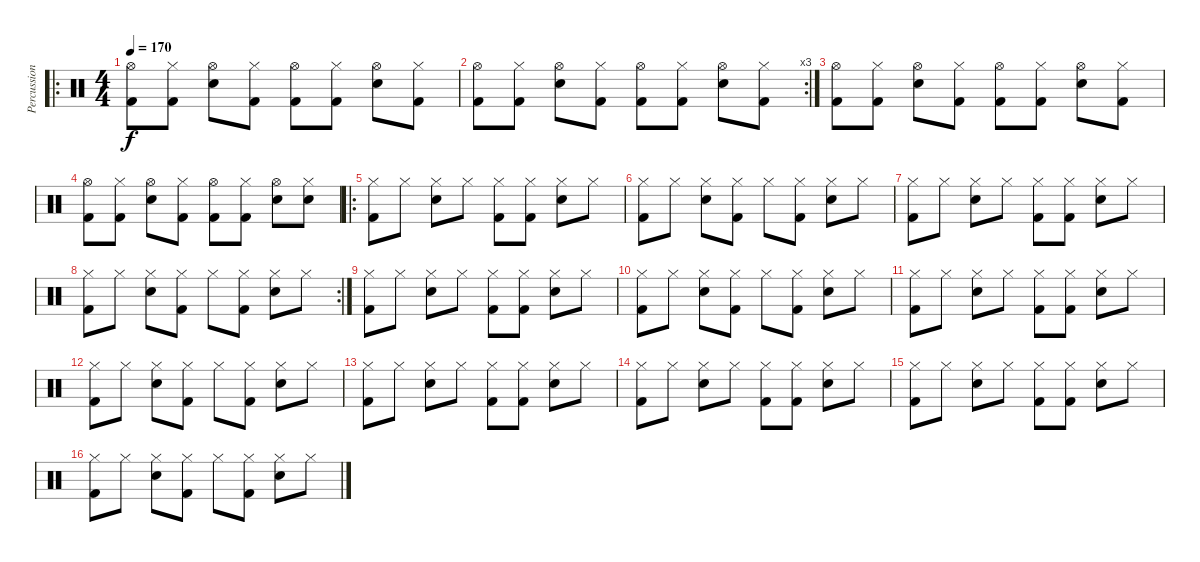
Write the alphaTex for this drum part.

\track ("Percussion" "Percussion") {instrument percussion}
\staff {score}
\articulation defaults
\ro
\ts (4 4)
\tempo 170
\clef neutral
\ks c
("Hi-Hat (open)" "Kick (hit) 2").8{dy f} ("Hi-Hat (closed)" "Kick (hit) 2").8 ("Hi-Hat (open)" "Electric Snare (hit)").8 ("Hi-Hat (closed)" "Kick (hit) 2").8 ("Hi-Hat (open)" "Kick (hit) 2").8 ("Hi-Hat (closed)" "Kick (hit) 2").8 ("Hi-Hat (open)" "Electric Snare (hit)").8 ("Hi-Hat (closed)" "Kick (hit) 2").8 |
\rc 3
("Hi-Hat (open)" "Kick (hit) 2").8 ("Hi-Hat (closed)" "Kick (hit) 2").8 ("Hi-Hat (open)" "Electric Snare (hit)").8 ("Hi-Hat (closed)" "Kick (hit) 2").8 ("Hi-Hat (open)" "Kick (hit) 2").8 ("Hi-Hat (closed)" "Kick (hit) 2").8 ("Hi-Hat (open)" "Electric Snare (hit)").8 ("Hi-Hat (closed)" "Kick (hit) 2").8 |
("Hi-Hat (open)" "Kick (hit) 2").8 ("Hi-Hat (closed)" "Kick (hit) 2").8 ("Hi-Hat (open)" "Electric Snare (hit)").8 ("Hi-Hat (closed)" "Kick (hit) 2").8 ("Hi-Hat (open)" "Kick (hit) 2").8 ("Hi-Hat (closed)" "Kick (hit) 2").8 ("Hi-Hat (open)" "Electric Snare (hit)").8 ("Hi-Hat (closed)" "Kick (hit) 2").8 |
("Hi-Hat (open)" "Kick (hit) 2").8 ("Hi-Hat (closed)" "Kick (hit) 2").8 ("Hi-Hat (open)" "Electric Snare (hit)").8 ("Hi-Hat (closed)" "Kick (hit) 2").8 ("Hi-Hat (open)" "Kick (hit) 2").8 ("Hi-Hat (closed)" "Kick (hit) 2").8 ("Hi-Hat (open)" "Electric Snare (hit)").8 ("Hi-Hat (closed)" "Snare (hit)").8 |
\ro
("Hi-Hat (closed)" "Kick (hit) 2").8 "Hi-Hat (closed)".8 ("Hi-Hat (closed)" "Electric Snare (hit)").8 "Hi-Hat (closed)".8 ("Hi-Hat (closed)" "Kick (hit) 2").8 ("Hi-Hat (closed)" "Kick (hit) 2").8 ("Hi-Hat (closed)" "Electric Snare (hit)").8 "Hi-Hat (closed)".8 |
("Hi-Hat (closed)" "Kick (hit) 2").8 "Hi-Hat (closed)".8 ("Hi-Hat (closed)" "Electric Snare (hit)").8 ("Hi-Hat (closed)" "Kick (hit) 2").8 "Hi-Hat (closed)".8 ("Hi-Hat (closed)" "Kick (hit) 2").8 ("Hi-Hat (closed)" "Electric Snare (hit)").8 "Hi-Hat (closed)".8 |
("Hi-Hat (closed)" "Kick (hit) 2").8 "Hi-Hat (closed)".8 ("Hi-Hat (closed)" "Electric Snare (hit)").8 "Hi-Hat (closed)".8 ("Hi-Hat (closed)" "Kick (hit) 2").8 ("Hi-Hat (closed)" "Kick (hit) 2").8 ("Hi-Hat (closed)" "Electric Snare (hit)").8 "Hi-Hat (closed)".8 |
\rc 2
("Hi-Hat (closed)" "Kick (hit) 2").8 "Hi-Hat (closed)".8 ("Hi-Hat (closed)" "Electric Snare (hit)").8 ("Hi-Hat (closed)" "Kick (hit) 2").8 "Hi-Hat (closed)".8 ("Hi-Hat (closed)" "Kick (hit) 2").8 ("Hi-Hat (closed)" "Electric Snare (hit)").8 "Hi-Hat (closed)".8 |
("Hi-Hat (closed)" "Kick (hit) 2").8 "Hi-Hat (closed)".8 ("Hi-Hat (closed)" "Electric Snare (hit)").8 "Hi-Hat (closed)".8 ("Hi-Hat (closed)" "Kick (hit) 2").8 ("Hi-Hat (closed)" "Kick (hit) 2").8 ("Hi-Hat (closed)" "Electric Snare (hit)").8 "Hi-Hat (closed)".8 |
("Hi-Hat (closed)" "Kick (hit) 2").8 "Hi-Hat (closed)".8 ("Hi-Hat (closed)" "Electric Snare (hit)").8 ("Hi-Hat (closed)" "Kick (hit) 2").8 "Hi-Hat (closed)".8 ("Hi-Hat (closed)" "Kick (hit) 2").8 ("Hi-Hat (closed)" "Electric Snare (hit)").8 "Hi-Hat (closed)".8 |
("Hi-Hat (closed)" "Kick (hit) 2").8 "Hi-Hat (closed)".8 ("Hi-Hat (closed)" "Electric Snare (hit)").8 "Hi-Hat (closed)".8 ("Hi-Hat (closed)" "Kick (hit) 2").8 ("Hi-Hat (closed)" "Kick (hit) 2").8 ("Hi-Hat (closed)" "Electric Snare (hit)").8 "Hi-Hat (closed)".8 |
("Hi-Hat (closed)" "Kick (hit) 2").8 "Hi-Hat (closed)".8 ("Hi-Hat (closed)" "Electric Snare (hit)").8 ("Hi-Hat (closed)" "Kick (hit) 2").8 "Hi-Hat (closed)".8 ("Hi-Hat (closed)" "Kick (hit) 2").8 ("Hi-Hat (closed)" "Electric Snare (hit)").8 "Hi-Hat (closed)".8 |
("Hi-Hat (closed)" "Kick (hit) 2").8 "Hi-Hat (closed)".8 ("Hi-Hat (closed)" "Electric Snare (hit)").8 "Hi-Hat (closed)".8 ("Hi-Hat (closed)" "Kick (hit) 2").8 ("Hi-Hat (closed)" "Kick (hit) 2").8 ("Hi-Hat (closed)" "Electric Snare (hit)").8 "Hi-Hat (closed)".8 |
("Hi-Hat (closed)" "Kick (hit) 2").8 "Hi-Hat (closed)".8 ("Hi-Hat (closed)" "Electric Snare (hit)").8 "Hi-Hat (closed)".8 ("Hi-Hat (closed)" "Kick (hit) 2").8 ("Hi-Hat (closed)" "Kick (hit) 2").8 ("Hi-Hat (closed)" "Electric Snare (hit)").8 "Hi-Hat (closed)".8 |
("Hi-Hat (closed)" "Kick (hit) 2").8 "Hi-Hat (closed)".8 ("Hi-Hat (closed)" "Electric Snare (hit)").8 "Hi-Hat (closed)".8 ("Hi-Hat (closed)" "Kick (hit) 2").8 ("Hi-Hat (closed)" "Kick (hit) 2").8 ("Hi-Hat (closed)" "Electric Snare (hit)").8 "Hi-Hat (closed)".8 |
("Hi-Hat (closed)" "Kick (hit) 2").8 "Hi-Hat (closed)".8 ("Hi-Hat (closed)" "Electric Snare (hit)").8 ("Hi-Hat (closed)" "Kick (hit) 2").8 "Hi-Hat (closed)".8 ("Hi-Hat (closed)" "Kick (hit) 2").8 ("Hi-Hat (closed)" "Electric Snare (hit)").8 "Hi-Hat (closed)".8
